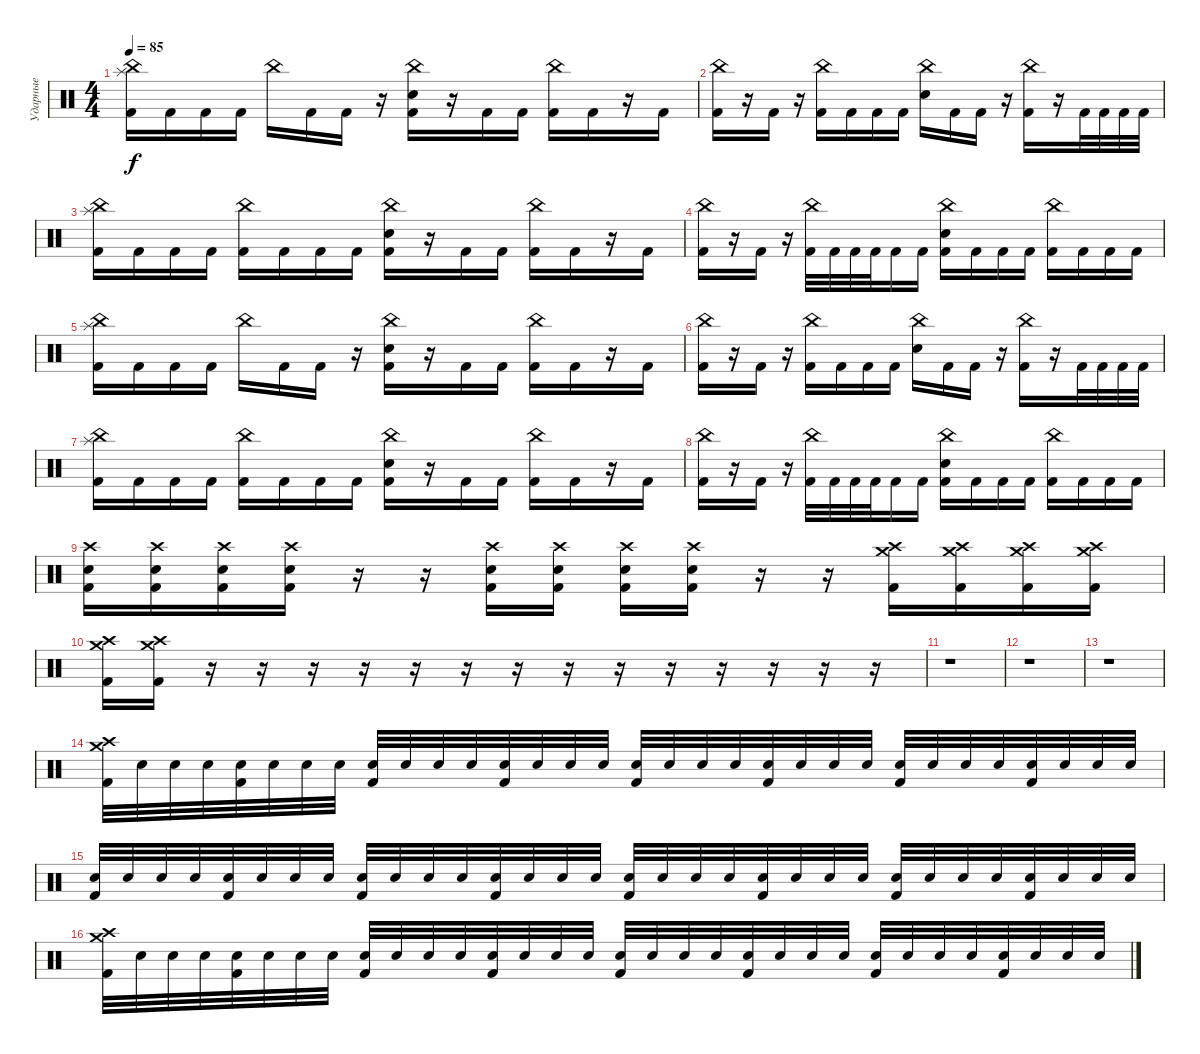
\track ("Ударные" "Ударные") {instrument percussion}
\staff {score}
\articulation defaults
\ts (4 4)
\tempo 85
\clef neutral
\ks c
("Splash (hit)" "China (hit)" "Kick (hit) 2").16{dy f} "Kick (hit) 2".16 "Kick (hit) 2".16 "Kick (hit) 2".16 "China (hit)".16 "Kick (hit) 2".16 "Kick (hit) 2".16 r.16 ("Electric Snare (hit)" "China (hit)" "Kick (hit) 2").16 r.16 "Kick (hit) 2".16 "Kick (hit) 2".16 ("China (hit)" "Kick (hit) 2").16 "Kick (hit) 2".16 r.16 "Kick (hit) 2".16 |
("China (hit)" "Kick (hit) 2").16 r.16 "Kick (hit) 2".16 r.16 ("China (hit)" "Kick (hit) 2").16 "Kick (hit) 2".16 "Kick (hit) 2".16 "Kick (hit) 2".16 ("Electric Snare (hit)" "China (hit)").16 "Kick (hit) 2".16 "Kick (hit) 2".16 r.16 ("China (hit)" "Kick (hit) 2").16 r.16 "Kick (hit) 2".32 "Kick (hit) 2".32 "Kick (hit) 2".32 "Kick (hit) 2".32 |
("Splash (hit)" "China (hit)" "Kick (hit) 2").16 "Kick (hit) 2".16 "Kick (hit) 2".16 "Kick (hit) 2".16 ("China (hit)" "Kick (hit) 2").16 "Kick (hit) 2".16 "Kick (hit) 2".16 "Kick (hit) 2".16 ("Electric Snare (hit)" "China (hit)" "Kick (hit) 2").16 r.16 "Kick (hit) 2".16 "Kick (hit) 2".16 ("China (hit)" "Kick (hit) 2").16 "Kick (hit) 2".16 r.16 "Kick (hit) 2".16 |
("China (hit)" "Kick (hit) 2").16 r.16 "Kick (hit) 2".16 r.16 ("China (hit)" "Kick (hit) 2").32 "Kick (hit) 2".32 "Kick (hit) 2".32 "Kick (hit) 2".32 "Kick (hit) 2".16 "Kick (hit) 2".16 ("Electric Snare (hit)" "China (hit)" "Kick (hit) 2").16 "Kick (hit) 2".16 "Kick (hit) 2".16 "Kick (hit) 2".16 ("China (hit)" "Kick (hit) 2").16 "Kick (hit) 2".16 "Kick (hit) 2".16 "Kick (hit) 2".16 |
("Splash (hit)" "China (hit)" "Kick (hit) 2").16 "Kick (hit) 2".16 "Kick (hit) 2".16 "Kick (hit) 2".16 "China (hit)".16 "Kick (hit) 2".16 "Kick (hit) 2".16 r.16 ("Electric Snare (hit)" "China (hit)" "Kick (hit) 2").16 r.16 "Kick (hit) 2".16 "Kick (hit) 2".16 ("China (hit)" "Kick (hit) 2").16 "Kick (hit) 2".16 r.16 "Kick (hit) 2".16 |
("China (hit)" "Kick (hit) 2").16 r.16 "Kick (hit) 2".16 r.16 ("China (hit)" "Kick (hit) 2").16 "Kick (hit) 2".16 "Kick (hit) 2".16 "Kick (hit) 2".16 ("Electric Snare (hit)" "China (hit)").16 "Kick (hit) 2".16 "Kick (hit) 2".16 r.16 ("China (hit)" "Kick (hit) 2").16 r.16 "Kick (hit) 2".32 "Kick (hit) 2".32 "Kick (hit) 2".32 "Kick (hit) 2".32 |
("Splash (hit)" "China (hit)" "Kick (hit) 2").16 "Kick (hit) 2".16 "Kick (hit) 2".16 "Kick (hit) 2".16 ("China (hit)" "Kick (hit) 2").16 "Kick (hit) 2".16 "Kick (hit) 2".16 "Kick (hit) 2".16 ("Electric Snare (hit)" "China (hit)" "Kick (hit) 2").16 r.16 "Kick (hit) 2".16 "Kick (hit) 2".16 ("China (hit)" "Kick (hit) 2").16 "Kick (hit) 2".16 r.16 "Kick (hit) 2".16 |
("China (hit)" "Kick (hit) 2").16 r.16 "Kick (hit) 2".16 r.16 ("China (hit)" "Kick (hit) 2").32 "Kick (hit) 2".32 "Kick (hit) 2".32 "Kick (hit) 2".32 "Kick (hit) 2".16 "Kick (hit) 2".16 ("Electric Snare (hit)" "China (hit)" "Kick (hit) 2").16 "Kick (hit) 2".16 "Kick (hit) 2".16 "Kick (hit) 2".16 ("China (hit)" "Kick (hit) 2").16 "Kick (hit) 2".16 "Kick (hit) 2".16 "Kick (hit) 2".16 |
("Electric Snare (hit)" "Crash high (hit)" "Kick (hit) 2").16 ("Electric Snare (hit)" "Crash high (hit)" "Kick (hit) 2").16 ("Electric Snare (hit)" "Crash high (hit)" "Kick (hit) 2").16 ("Electric Snare (hit)" "Crash high (hit)" "Kick (hit) 2").16 r.16 r.16 ("Electric Snare (hit)" "Crash high (hit)" "Kick (hit) 2").16 ("Electric Snare (hit)" "Crash high (hit)" "Kick (hit) 2").16 ("Electric Snare (hit)" "Crash high (hit)" "Kick (hit) 2").16 ("Electric Snare (hit)" "Crash high (hit)" "Kick (hit) 2").16 r.16 r.16 ("Crash medium (hit)" "Crash high (hit)" "Kick (hit) 2").16 ("Crash medium (hit)" "Crash high (hit)" "Kick (hit) 2").16 ("Crash medium (hit)" "Crash high (hit)" "Kick (hit) 2").16 ("Crash medium (hit)" "Crash high (hit)" "Kick (hit) 2").16 |
("Crash medium (hit)" "Crash high (hit)" "Kick (hit) 2").16 ("Crash medium (hit)" "Crash high (hit)" "Kick (hit) 2").16 r.16 r.16 r.16 r.16 r.16 r.16 r.16 r.16 r.16 r.16 r.16 r.16 r.16 r.16 |
r.1 |
r.1 |
r.1 |
("Crash medium (hit)" "Crash high (hit)" "Kick (hit) 2").32 "Electric Snare (hit)".32 "Electric Snare (hit)".32 "Electric Snare (hit)".32 ("Electric Snare (hit)" "Kick (hit) 2").32 "Electric Snare (hit)".32 "Electric Snare (hit)".32 "Electric Snare (hit)".32 ("Electric Snare (hit)" "Kick (hit) 2").32 "Electric Snare (hit)".32 "Electric Snare (hit)".32 "Electric Snare (hit)".32 ("Electric Snare (hit)" "Kick (hit) 2").32 "Electric Snare (hit)".32 "Electric Snare (hit)".32 "Electric Snare (hit)".32 ("Electric Snare (hit)" "Kick (hit) 2").32 "Electric Snare (hit)".32 "Electric Snare (hit)".32 "Electric Snare (hit)".32 ("Electric Snare (hit)" "Kick (hit) 2").32 "Electric Snare (hit)".32 "Electric Snare (hit)".32 "Electric Snare (hit)".32 ("Electric Snare (hit)" "Kick (hit) 2").32 "Electric Snare (hit)".32 "Electric Snare (hit)".32 "Electric Snare (hit)".32 ("Electric Snare (hit)" "Kick (hit) 2").32 "Electric Snare (hit)".32 "Electric Snare (hit)".32 "Electric Snare (hit)".32 |
("Electric Snare (hit)" "Kick (hit) 2").32 "Electric Snare (hit)".32 "Electric Snare (hit)".32 "Electric Snare (hit)".32 ("Electric Snare (hit)" "Kick (hit) 2").32 "Electric Snare (hit)".32 "Electric Snare (hit)".32 "Electric Snare (hit)".32 ("Electric Snare (hit)" "Kick (hit) 2").32 "Electric Snare (hit)".32 "Electric Snare (hit)".32 "Electric Snare (hit)".32 ("Electric Snare (hit)" "Kick (hit) 2").32 "Electric Snare (hit)".32 "Electric Snare (hit)".32 "Electric Snare (hit)".32 ("Electric Snare (hit)" "Kick (hit) 2").32 "Electric Snare (hit)".32 "Electric Snare (hit)".32 "Electric Snare (hit)".32 ("Electric Snare (hit)" "Kick (hit) 2").32 "Electric Snare (hit)".32 "Electric Snare (hit)".32 "Electric Snare (hit)".32 ("Electric Snare (hit)" "Kick (hit) 2").32 "Electric Snare (hit)".32 "Electric Snare (hit)".32 "Electric Snare (hit)".32 ("Electric Snare (hit)" "Kick (hit) 2").32 "Electric Snare (hit)".32 "Electric Snare (hit)".32 "Electric Snare (hit)".32 |
("Crash medium (hit)" "Crash high (hit)" "Kick (hit) 2").32 "Electric Snare (hit)".32 "Electric Snare (hit)".32 "Electric Snare (hit)".32 ("Electric Snare (hit)" "Kick (hit) 2").32 "Electric Snare (hit)".32 "Electric Snare (hit)".32 "Electric Snare (hit)".32 ("Electric Snare (hit)" "Kick (hit) 2").32 "Electric Snare (hit)".32 "Electric Snare (hit)".32 "Electric Snare (hit)".32 ("Electric Snare (hit)" "Kick (hit) 2").32 "Electric Snare (hit)".32 "Electric Snare (hit)".32 "Electric Snare (hit)".32 ("Electric Snare (hit)" "Kick (hit) 2").32 "Electric Snare (hit)".32 "Electric Snare (hit)".32 "Electric Snare (hit)".32 ("Electric Snare (hit)" "Kick (hit) 2").32 "Electric Snare (hit)".32 "Electric Snare (hit)".32 "Electric Snare (hit)".32 ("Electric Snare (hit)" "Kick (hit) 2").32 "Electric Snare (hit)".32 "Electric Snare (hit)".32 "Electric Snare (hit)".32 ("Electric Snare (hit)" "Kick (hit) 2").32 "Electric Snare (hit)".32 "Electric Snare (hit)".32 "Electric Snare (hit)".32
